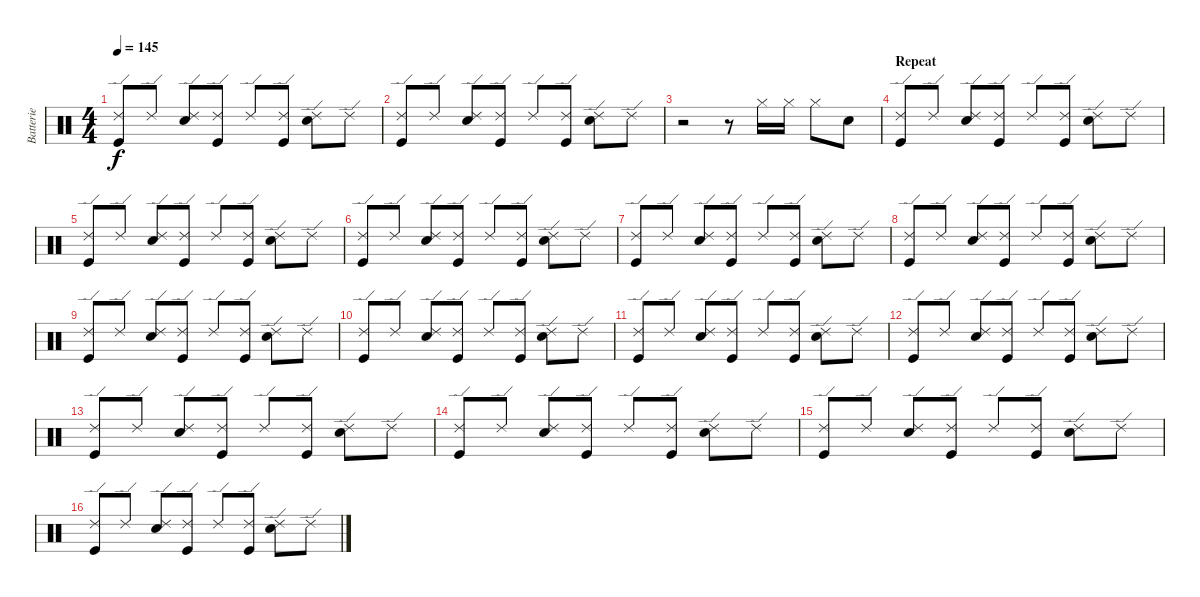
\track ("Batterie" "Batterie") {instrument percussion}
\staff {score}
\articulation defaults
\ts (4 4)
\tempo 145
\clef neutral
\ks c
("Ride (edge) 2" "Kick (hit)").8{dy f} "Ride (edge) 2".8 ("Ride (edge) 2" "Snare (hit) 2").8 ("Ride (edge) 2" "Kick (hit)").8 "Ride (edge) 2".8 ("Ride (edge) 2" "Kick (hit)").8 ("Ride (edge) 2" "Snare (hit) 2").8 "Ride (edge) 2".8 |
("Ride (edge) 2" "Kick (hit)").8 "Ride (edge) 2".8 ("Ride (edge) 2" "Snare (hit) 2").8 ("Ride (edge) 2" "Kick (hit)").8 "Ride (edge) 2".8 ("Ride (edge) 2" "Kick (hit)").8 ("Ride (edge) 2" "Snare (hit) 2").8 "Ride (edge) 2".8 |
r.2 r.8 "Hi-Hat (closed)".16 "Hi-Hat (closed)".16 "Hi-Hat (closed)".8 "Electric Snare (hit)".8 |
\section ("" "Repeat")
("Ride (edge) 2" "Kick (hit)").8 "Ride (edge) 2".8 ("Ride (edge) 2" "Snare (hit) 2").8 ("Ride (edge) 2" "Kick (hit)").8 "Ride (edge) 2".8 ("Ride (edge) 2" "Kick (hit)").8 ("Ride (edge) 2" "Snare (hit) 2").8 "Ride (edge) 2".8 |
("Ride (edge) 2" "Kick (hit)").8 "Ride (edge) 2".8 ("Ride (edge) 2" "Snare (hit) 2").8 ("Ride (edge) 2" "Kick (hit)").8 "Ride (edge) 2".8 ("Ride (edge) 2" "Kick (hit)").8 ("Ride (edge) 2" "Snare (hit) 2").8 "Ride (edge) 2".8 |
("Ride (edge) 2" "Kick (hit)").8 "Ride (edge) 2".8 ("Ride (edge) 2" "Snare (hit) 2").8 ("Ride (edge) 2" "Kick (hit)").8 "Ride (edge) 2".8 ("Ride (edge) 2" "Kick (hit)").8 ("Ride (edge) 2" "Snare (hit) 2").8 "Ride (edge) 2".8 |
("Ride (edge) 2" "Kick (hit)").8 "Ride (edge) 2".8 ("Ride (edge) 2" "Snare (hit) 2").8 ("Ride (edge) 2" "Kick (hit)").8 "Ride (edge) 2".8 ("Ride (edge) 2" "Kick (hit)").8 ("Ride (edge) 2" "Snare (hit) 2").8 "Ride (edge) 2".8 |
("Ride (edge) 2" "Kick (hit)").8 "Ride (edge) 2".8 ("Ride (edge) 2" "Snare (hit) 2").8 ("Ride (edge) 2" "Kick (hit)").8 "Ride (edge) 2".8 ("Ride (edge) 2" "Kick (hit)").8 ("Ride (edge) 2" "Snare (hit) 2").8 "Ride (edge) 2".8 |
("Ride (edge) 2" "Kick (hit)").8 "Ride (edge) 2".8 ("Ride (edge) 2" "Snare (hit) 2").8 ("Ride (edge) 2" "Kick (hit)").8 "Ride (edge) 2".8 ("Ride (edge) 2" "Kick (hit)").8 ("Ride (edge) 2" "Snare (hit) 2").8 "Ride (edge) 2".8 |
("Ride (edge) 2" "Kick (hit)").8 "Ride (edge) 2".8 ("Ride (edge) 2" "Snare (hit) 2").8 ("Ride (edge) 2" "Kick (hit)").8 "Ride (edge) 2".8 ("Ride (edge) 2" "Kick (hit)").8 ("Ride (edge) 2" "Snare (hit) 2").8 "Ride (edge) 2".8 |
("Ride (edge) 2" "Kick (hit)").8 "Ride (edge) 2".8 ("Ride (edge) 2" "Snare (hit) 2").8 ("Ride (edge) 2" "Kick (hit)").8 "Ride (edge) 2".8 ("Ride (edge) 2" "Kick (hit)").8 ("Ride (edge) 2" "Snare (hit) 2").8 "Ride (edge) 2".8 |
("Ride (edge) 2" "Kick (hit)").8 "Ride (edge) 2".8 ("Ride (edge) 2" "Snare (hit) 2").8 ("Ride (edge) 2" "Kick (hit)").8 "Ride (edge) 2".8 ("Ride (edge) 2" "Kick (hit)").8 ("Ride (edge) 2" "Snare (hit) 2").8 "Ride (edge) 2".8 |
("Ride (edge) 2" "Kick (hit)").8 "Ride (edge) 2".8 ("Ride (edge) 2" "Snare (hit) 2").8 ("Ride (edge) 2" "Kick (hit)").8 "Ride (edge) 2".8 ("Ride (edge) 2" "Kick (hit)").8 ("Ride (edge) 2" "Snare (hit) 2").8 "Ride (edge) 2".8 |
("Ride (edge) 2" "Kick (hit)").8 "Ride (edge) 2".8 ("Ride (edge) 2" "Snare (hit) 2").8 ("Ride (edge) 2" "Kick (hit)").8 "Ride (edge) 2".8 ("Ride (edge) 2" "Kick (hit)").8 ("Ride (edge) 2" "Snare (hit) 2").8 "Ride (edge) 2".8 |
("Ride (edge) 2" "Kick (hit)").8 "Ride (edge) 2".8 ("Ride (edge) 2" "Snare (hit) 2").8 ("Ride (edge) 2" "Kick (hit)").8 "Ride (edge) 2".8 ("Ride (edge) 2" "Kick (hit)").8 ("Ride (edge) 2" "Snare (hit) 2").8 "Ride (edge) 2".8 |
("Ride (edge) 2" "Kick (hit)").8 "Ride (edge) 2".8 ("Ride (edge) 2" "Snare (hit) 2").8 ("Ride (edge) 2" "Kick (hit)").8 "Ride (edge) 2".8 ("Ride (edge) 2" "Kick (hit)").8 ("Ride (edge) 2" "Snare (hit) 2").8 "Ride (edge) 2".8
